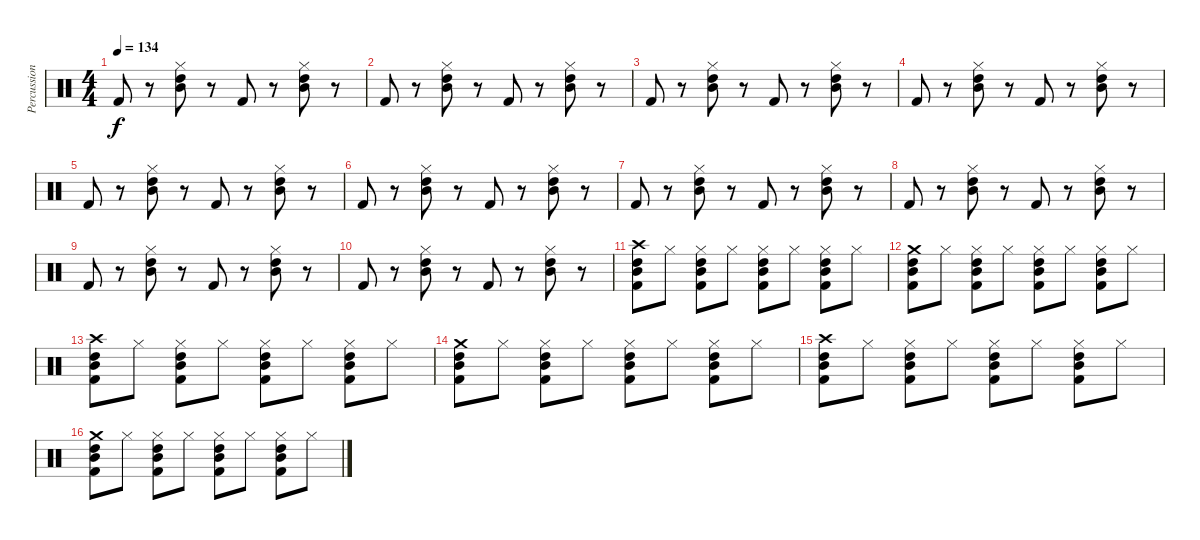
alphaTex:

\track ("Percussion" "Percussion") {instrument percussion}
\staff {score}
\articulation defaults
\ts (4 4)
\tempo 134
\clef neutral
\ks c "Kick (hit) 2".8{dy f}
r.8 ("Hi-Hat (closed)" "Mid Tom (hit)" "High Tom (hit)").8 r.8 "Kick (hit) 2".8 r.8 ("Hi-Hat (closed)" "Mid Tom (hit)" "High Tom (hit)").8 r.8 |
"Kick (hit) 2".8 r.8 ("Hi-Hat (closed)" "Mid Tom (hit)" "High Tom (hit)").8 r.8 "Kick (hit) 2".8 r.8 ("Hi-Hat (closed)" "Mid Tom (hit)" "High Tom (hit)").8 r.8 |
"Kick (hit) 2".8 r.8 ("Hi-Hat (closed)" "Mid Tom (hit)" "High Tom (hit)").8 r.8 "Kick (hit) 2".8 r.8 ("Hi-Hat (closed)" "Mid Tom (hit)" "High Tom (hit)").8 r.8 |
"Kick (hit) 2".8 r.8 ("Hi-Hat (closed)" "Mid Tom (hit)" "High Tom (hit)").8 r.8 "Kick (hit) 2".8 r.8 ("Hi-Hat (closed)" "Mid Tom (hit)" "High Tom (hit)").8 r.8 |
"Kick (hit) 2".8 r.8 ("Hi-Hat (closed)" "Mid Tom (hit)" "High Tom (hit)").8 r.8 "Kick (hit) 2".8 r.8 ("Hi-Hat (closed)" "Mid Tom (hit)" "High Tom (hit)").8 r.8 |
"Kick (hit) 2".8 r.8 ("Hi-Hat (closed)" "Mid Tom (hit)" "High Tom (hit)").8 r.8 "Kick (hit) 2".8 r.8 ("Hi-Hat (closed)" "Mid Tom (hit)" "High Tom (hit)").8 r.8 |
"Kick (hit) 2".8 r.8 ("Hi-Hat (closed)" "Mid Tom (hit)" "High Tom (hit)").8 r.8 "Kick (hit) 2".8 r.8 ("Hi-Hat (closed)" "Mid Tom (hit)" "High Tom (hit)").8 r.8 |
"Kick (hit) 2".8 r.8 ("Hi-Hat (closed)" "Mid Tom (hit)" "High Tom (hit)").8 r.8 "Kick (hit) 2".8 r.8 ("Hi-Hat (closed)" "Mid Tom (hit)" "High Tom (hit)").8 r.8 |
"Kick (hit) 2".8 r.8 ("Hi-Hat (closed)" "Mid Tom (hit)" "High Tom (hit)").8 r.8 "Kick (hit) 2".8 r.8 ("Hi-Hat (closed)" "Mid Tom (hit)" "High Tom (hit)").8 r.8 |
"Kick (hit) 2".8 r.8 ("Hi-Hat (closed)" "Mid Tom (hit)" "High Tom (hit)").8 r.8 "Kick (hit) 2".8 r.8 ("Hi-Hat (closed)" "Mid Tom (hit)" "High Tom (hit)").8 r.8 |
("Crash high (hit)" "Mid Tom (hit)" "High Tom (hit)" "Kick (hit) 2").8 "Hi-Hat (closed)".8 ("Hi-Hat (closed)" "Mid Tom (hit)" "High Tom (hit)" "Kick (hit) 2").8 "Hi-Hat (closed)".8 ("Hi-Hat (closed)" "Mid Tom (hit)" "High Tom (hit)" "Kick (hit) 2").8 "Hi-Hat (closed)".8 ("Hi-Hat (closed)" "Mid Tom (hit)" "High Tom (hit)" "Kick (hit) 2").8 "Hi-Hat (closed)".8 |
("Crash medium (hit)" "Mid Tom (hit)" "High Tom (hit)" "Kick (hit) 2").8 "Hi-Hat (closed)".8 ("Hi-Hat (closed)" "Mid Tom (hit)" "High Tom (hit)" "Kick (hit) 2").8 "Hi-Hat (closed)".8 ("Hi-Hat (closed)" "Mid Tom (hit)" "High Tom (hit)" "Kick (hit) 2").8 "Hi-Hat (closed)".8 ("Hi-Hat (closed)" "Mid Tom (hit)" "High Tom (hit)" "Kick (hit) 2").8 "Hi-Hat (closed)".8 |
("Crash high (hit)" "Mid Tom (hit)" "High Tom (hit)" "Kick (hit) 2").8 "Hi-Hat (closed)".8 ("Hi-Hat (closed)" "Mid Tom (hit)" "High Tom (hit)" "Kick (hit) 2").8 "Hi-Hat (closed)".8 ("Hi-Hat (closed)" "Mid Tom (hit)" "High Tom (hit)" "Kick (hit) 2").8 "Hi-Hat (closed)".8 ("Hi-Hat (closed)" "Mid Tom (hit)" "High Tom (hit)" "Kick (hit) 2").8 "Hi-Hat (closed)".8 |
("Crash medium (hit)" "Mid Tom (hit)" "High Tom (hit)" "Kick (hit) 2").8 "Hi-Hat (closed)".8 ("Hi-Hat (closed)" "Mid Tom (hit)" "High Tom (hit)" "Kick (hit) 2").8 "Hi-Hat (closed)".8 ("Hi-Hat (closed)" "Mid Tom (hit)" "High Tom (hit)" "Kick (hit) 2").8 "Hi-Hat (closed)".8 ("Hi-Hat (closed)" "Mid Tom (hit)" "High Tom (hit)" "Kick (hit) 2").8 "Hi-Hat (closed)".8 |
("Crash high (hit)" "Mid Tom (hit)" "High Tom (hit)" "Kick (hit) 2").8 "Hi-Hat (closed)".8 ("Hi-Hat (closed)" "Mid Tom (hit)" "High Tom (hit)" "Kick (hit) 2").8 "Hi-Hat (closed)".8 ("Hi-Hat (closed)" "Mid Tom (hit)" "High Tom (hit)" "Kick (hit) 2").8 "Hi-Hat (closed)".8 ("Hi-Hat (closed)" "Mid Tom (hit)" "High Tom (hit)" "Kick (hit) 2").8 "Hi-Hat (closed)".8 |
("Crash medium (hit)" "Mid Tom (hit)" "High Tom (hit)" "Kick (hit) 2").8 "Hi-Hat (closed)".8 ("Hi-Hat (closed)" "Mid Tom (hit)" "High Tom (hit)" "Kick (hit) 2").8 "Hi-Hat (closed)".8 ("Hi-Hat (closed)" "Mid Tom (hit)" "High Tom (hit)" "Kick (hit) 2").8 "Hi-Hat (closed)".8 ("Hi-Hat (closed)" "Mid Tom (hit)" "High Tom (hit)" "Kick (hit) 2").8 "Hi-Hat (closed)".8
